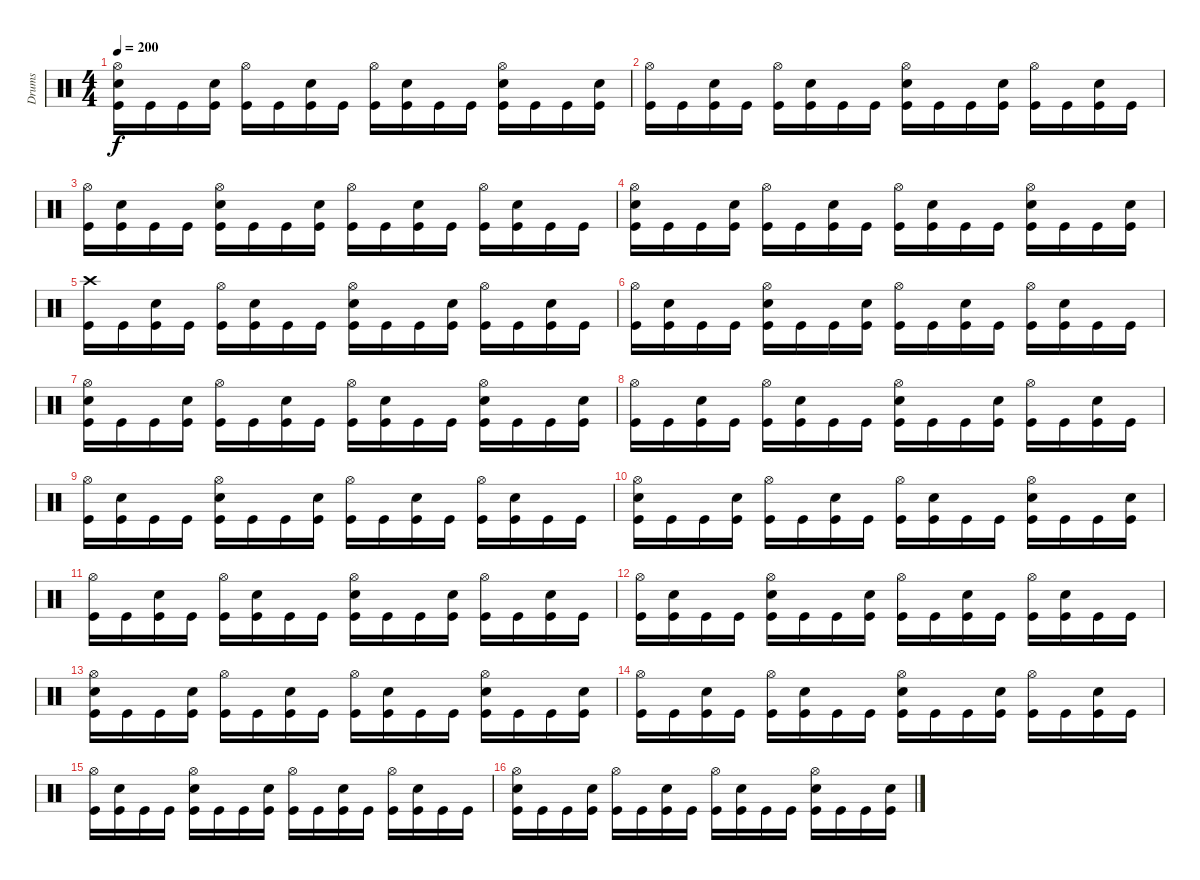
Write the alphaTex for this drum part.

\track ("Drums" "Drums") {instrument percussion}
\staff {score}
\articulation defaults
\ts (4 4)
\tempo 200
\clef neutral
\ks c
("Hi-Hat (open)" "Snare (hit) 2" "Kick (hit)").16{dy f} "Kick (hit)".16 "Kick (hit)".16 ("Snare (hit) 2" "Kick (hit)").16 ("Hi-Hat (open)" "Kick (hit)").16 "Kick (hit)".16 ("Snare (hit) 2" "Kick (hit)").16 "Kick (hit)".16 ("Hi-Hat (open)" "Kick (hit)").16 ("Snare (hit) 2" "Kick (hit)").16 "Kick (hit)".16 "Kick (hit)".16 ("Hi-Hat (open)" "Snare (hit) 2" "Kick (hit)").16 "Kick (hit)".16 "Kick (hit)".16 ("Snare (hit) 2" "Kick (hit)").16 |
("Hi-Hat (open)" "Kick (hit)").16 "Kick (hit)".16 ("Snare (hit) 2" "Kick (hit)").16 "Kick (hit)".16 ("Hi-Hat (open)" "Kick (hit)").16 ("Snare (hit) 2" "Kick (hit)").16 "Kick (hit)".16 "Kick (hit)".16 ("Hi-Hat (open)" "Snare (hit) 2" "Kick (hit)").16 "Kick (hit)".16 "Kick (hit)".16 ("Snare (hit) 2" "Kick (hit)").16 ("Hi-Hat (open)" "Kick (hit)").16 "Kick (hit)".16 ("Snare (hit) 2" "Kick (hit)").16 "Kick (hit)".16 |
("Hi-Hat (open)" "Kick (hit)").16 ("Snare (hit) 2" "Kick (hit)").16 "Kick (hit)".16 "Kick (hit)".16 ("Hi-Hat (open)" "Snare (hit) 2" "Kick (hit)").16 "Kick (hit)".16 "Kick (hit)".16 ("Snare (hit) 2" "Kick (hit)").16 ("Hi-Hat (open)" "Kick (hit)").16 "Kick (hit)".16 ("Snare (hit) 2" "Kick (hit)").16 "Kick (hit)".16 ("Hi-Hat (open)" "Kick (hit)").16 ("Snare (hit) 2" "Kick (hit)").16 "Kick (hit)".16 "Kick (hit)".16 |
("Hi-Hat (open)" "Snare (hit) 2" "Kick (hit)").16 "Kick (hit)".16 "Kick (hit)".16 ("Snare (hit) 2" "Kick (hit)").16 ("Hi-Hat (open)" "Kick (hit)").16 "Kick (hit)".16 ("Snare (hit) 2" "Kick (hit)").16 "Kick (hit)".16 ("Hi-Hat (open)" "Kick (hit)").16 ("Snare (hit) 2" "Kick (hit)").16 "Kick (hit)".16 "Kick (hit)".16 ("Hi-Hat (open)" "Snare (hit) 2" "Kick (hit)").16 "Kick (hit)".16 "Kick (hit)".16 ("Snare (hit) 2" "Kick (hit)").16 |
("Crash high (hit)" "Kick (hit)").16 "Kick (hit)".16 ("Snare (hit) 2" "Kick (hit)").16 "Kick (hit)".16 ("Hi-Hat (open)" "Kick (hit)").16 ("Snare (hit) 2" "Kick (hit)").16 "Kick (hit)".16 "Kick (hit)".16 ("Hi-Hat (open)" "Snare (hit) 2" "Kick (hit)").16 "Kick (hit)".16 "Kick (hit)".16 ("Snare (hit) 2" "Kick (hit)").16 ("Hi-Hat (open)" "Kick (hit)").16 "Kick (hit)".16 ("Snare (hit) 2" "Kick (hit)").16 "Kick (hit)".16 |
("Hi-Hat (open)" "Kick (hit)").16 ("Snare (hit) 2" "Kick (hit)").16 "Kick (hit)".16 "Kick (hit)".16 ("Hi-Hat (open)" "Snare (hit) 2" "Kick (hit)").16 "Kick (hit)".16 "Kick (hit)".16 ("Snare (hit) 2" "Kick (hit)").16 ("Hi-Hat (open)" "Kick (hit)").16 "Kick (hit)".16 ("Snare (hit) 2" "Kick (hit)").16 "Kick (hit)".16 ("Hi-Hat (open)" "Kick (hit)").16 ("Snare (hit) 2" "Kick (hit)").16 "Kick (hit)".16 "Kick (hit)".16 |
("Hi-Hat (open)" "Snare (hit) 2" "Kick (hit)").16 "Kick (hit)".16 "Kick (hit)".16 ("Snare (hit) 2" "Kick (hit)").16 ("Hi-Hat (open)" "Kick (hit)").16 "Kick (hit)".16 ("Snare (hit) 2" "Kick (hit)").16 "Kick (hit)".16 ("Hi-Hat (open)" "Kick (hit)").16 ("Snare (hit) 2" "Kick (hit)").16 "Kick (hit)".16 "Kick (hit)".16 ("Hi-Hat (open)" "Snare (hit) 2" "Kick (hit)").16 "Kick (hit)".16 "Kick (hit)".16 ("Snare (hit) 2" "Kick (hit)").16 |
("Hi-Hat (open)" "Kick (hit)").16 "Kick (hit)".16 ("Snare (hit) 2" "Kick (hit)").16 "Kick (hit)".16 ("Hi-Hat (open)" "Kick (hit)").16 ("Snare (hit) 2" "Kick (hit)").16 "Kick (hit)".16 "Kick (hit)".16 ("Hi-Hat (open)" "Snare (hit) 2" "Kick (hit)").16 "Kick (hit)".16 "Kick (hit)".16 ("Snare (hit) 2" "Kick (hit)").16 ("Hi-Hat (open)" "Kick (hit)").16 "Kick (hit)".16 ("Snare (hit) 2" "Kick (hit)").16 "Kick (hit)".16 |
("Hi-Hat (open)" "Kick (hit)").16 ("Snare (hit) 2" "Kick (hit)").16 "Kick (hit)".16 "Kick (hit)".16 ("Hi-Hat (open)" "Snare (hit) 2" "Kick (hit)").16 "Kick (hit)".16 "Kick (hit)".16 ("Snare (hit) 2" "Kick (hit)").16 ("Hi-Hat (open)" "Kick (hit)").16 "Kick (hit)".16 ("Snare (hit) 2" "Kick (hit)").16 "Kick (hit)".16 ("Hi-Hat (open)" "Kick (hit)").16 ("Snare (hit) 2" "Kick (hit)").16 "Kick (hit)".16 "Kick (hit)".16 |
("Hi-Hat (open)" "Snare (hit) 2" "Kick (hit)").16 "Kick (hit)".16 "Kick (hit)".16 ("Snare (hit) 2" "Kick (hit)").16 ("Hi-Hat (open)" "Kick (hit)").16 "Kick (hit)".16 ("Snare (hit) 2" "Kick (hit)").16 "Kick (hit)".16 ("Hi-Hat (open)" "Kick (hit)").16 ("Snare (hit) 2" "Kick (hit)").16 "Kick (hit)".16 "Kick (hit)".16 ("Hi-Hat (open)" "Snare (hit) 2" "Kick (hit)").16 "Kick (hit)".16 "Kick (hit)".16 ("Snare (hit) 2" "Kick (hit)").16 |
("Hi-Hat (open)" "Kick (hit)").16 "Kick (hit)".16 ("Snare (hit) 2" "Kick (hit)").16 "Kick (hit)".16 ("Hi-Hat (open)" "Kick (hit)").16 ("Snare (hit) 2" "Kick (hit)").16 "Kick (hit)".16 "Kick (hit)".16 ("Hi-Hat (open)" "Snare (hit) 2" "Kick (hit)").16 "Kick (hit)".16 "Kick (hit)".16 ("Snare (hit) 2" "Kick (hit)").16 ("Hi-Hat (open)" "Kick (hit)").16 "Kick (hit)".16 ("Snare (hit) 2" "Kick (hit)").16 "Kick (hit)".16 |
("Hi-Hat (open)" "Kick (hit)").16 ("Snare (hit) 2" "Kick (hit)").16 "Kick (hit)".16 "Kick (hit)".16 ("Hi-Hat (open)" "Snare (hit) 2" "Kick (hit)").16 "Kick (hit)".16 "Kick (hit)".16 ("Snare (hit) 2" "Kick (hit)").16 ("Hi-Hat (open)" "Kick (hit)").16 "Kick (hit)".16 ("Snare (hit) 2" "Kick (hit)").16 "Kick (hit)".16 ("Hi-Hat (open)" "Kick (hit)").16 ("Snare (hit) 2" "Kick (hit)").16 "Kick (hit)".16 "Kick (hit)".16 |
("Hi-Hat (open)" "Snare (hit) 2" "Kick (hit)").16 "Kick (hit)".16 "Kick (hit)".16 ("Snare (hit) 2" "Kick (hit)").16 ("Hi-Hat (open)" "Kick (hit)").16 "Kick (hit)".16 ("Snare (hit) 2" "Kick (hit)").16 "Kick (hit)".16 ("Hi-Hat (open)" "Kick (hit)").16 ("Snare (hit) 2" "Kick (hit)").16 "Kick (hit)".16 "Kick (hit)".16 ("Hi-Hat (open)" "Snare (hit) 2" "Kick (hit)").16 "Kick (hit)".16 "Kick (hit)".16 ("Snare (hit) 2" "Kick (hit)").16 |
("Hi-Hat (open)" "Kick (hit)").16 "Kick (hit)".16 ("Snare (hit) 2" "Kick (hit)").16 "Kick (hit)".16 ("Hi-Hat (open)" "Kick (hit)").16 ("Snare (hit) 2" "Kick (hit)").16 "Kick (hit)".16 "Kick (hit)".16 ("Hi-Hat (open)" "Snare (hit) 2" "Kick (hit)").16 "Kick (hit)".16 "Kick (hit)".16 ("Snare (hit) 2" "Kick (hit)").16 ("Hi-Hat (open)" "Kick (hit)").16 "Kick (hit)".16 ("Snare (hit) 2" "Kick (hit)").16 "Kick (hit)".16 |
("Hi-Hat (open)" "Kick (hit)").16 ("Snare (hit) 2" "Kick (hit)").16 "Kick (hit)".16 "Kick (hit)".16 ("Hi-Hat (open)" "Snare (hit) 2" "Kick (hit)").16 "Kick (hit)".16 "Kick (hit)".16 ("Snare (hit) 2" "Kick (hit)").16 ("Hi-Hat (open)" "Kick (hit)").16 "Kick (hit)".16 ("Snare (hit) 2" "Kick (hit)").16 "Kick (hit)".16 ("Hi-Hat (open)" "Kick (hit)").16 ("Snare (hit) 2" "Kick (hit)").16 "Kick (hit)".16 "Kick (hit)".16 |
("Hi-Hat (open)" "Snare (hit) 2" "Kick (hit)").16 "Kick (hit)".16 "Kick (hit)".16 ("Snare (hit) 2" "Kick (hit)").16 ("Hi-Hat (open)" "Kick (hit)").16 "Kick (hit)".16 ("Snare (hit) 2" "Kick (hit)").16 "Kick (hit)".16 ("Hi-Hat (open)" "Kick (hit)").16 ("Snare (hit) 2" "Kick (hit)").16 "Kick (hit)".16 "Kick (hit)".16 ("Hi-Hat (open)" "Snare (hit) 2" "Kick (hit)").16 "Kick (hit)".16 "Kick (hit)".16 ("Snare (hit) 2" "Kick (hit)").16
